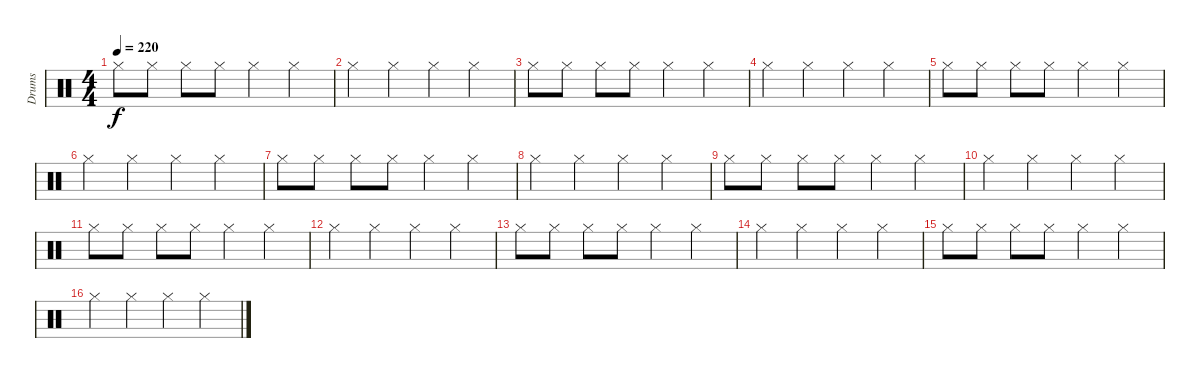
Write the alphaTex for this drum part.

\track ("Drums" "Drums") {instrument percussion}
\staff {score}
\articulation defaults
\ts (4 4)
\tempo 220
\clef neutral
\ks c "Hi-Hat (closed)".8{dy f} "Hi-Hat (closed)".8 "Hi-Hat (closed)".8 "Hi-Hat (closed)".8 "Hi-Hat (closed)".4 "Hi-Hat (closed)".4
|
"Hi-Hat (closed)".4 "Hi-Hat (closed)".4 "Hi-Hat (closed)".4 "Hi-Hat (closed)".4 |
"Hi-Hat (closed)".8 "Hi-Hat (closed)".8 "Hi-Hat (closed)".8 "Hi-Hat (closed)".8 "Hi-Hat (closed)".4 "Hi-Hat (closed)".4 |
"Hi-Hat (closed)".4 "Hi-Hat (closed)".4 "Hi-Hat (closed)".4 "Hi-Hat (closed)".4 |
"Hi-Hat (closed)".8 "Hi-Hat (closed)".8 "Hi-Hat (closed)".8 "Hi-Hat (closed)".8 "Hi-Hat (closed)".4 "Hi-Hat (closed)".4 |
"Hi-Hat (closed)".4 "Hi-Hat (closed)".4 "Hi-Hat (closed)".4 "Hi-Hat (closed)".4 |
"Hi-Hat (closed)".8 "Hi-Hat (closed)".8 "Hi-Hat (closed)".8 "Hi-Hat (closed)".8 "Hi-Hat (closed)".4 "Hi-Hat (closed)".4 |
"Hi-Hat (closed)".4 "Hi-Hat (closed)".4 "Hi-Hat (closed)".4 "Hi-Hat (closed)".4 |
"Hi-Hat (closed)".8 "Hi-Hat (closed)".8 "Hi-Hat (closed)".8 "Hi-Hat (closed)".8 "Hi-Hat (closed)".4 "Hi-Hat (closed)".4 |
"Hi-Hat (closed)".4 "Hi-Hat (closed)".4 "Hi-Hat (closed)".4 "Hi-Hat (closed)".4 |
"Hi-Hat (closed)".8 "Hi-Hat (closed)".8 "Hi-Hat (closed)".8 "Hi-Hat (closed)".8 "Hi-Hat (closed)".4 "Hi-Hat (closed)".4 |
"Hi-Hat (closed)".4 "Hi-Hat (closed)".4 "Hi-Hat (closed)".4 "Hi-Hat (closed)".4 |
"Hi-Hat (closed)".8 "Hi-Hat (closed)".8 "Hi-Hat (closed)".8 "Hi-Hat (closed)".8 "Hi-Hat (closed)".4 "Hi-Hat (closed)".4 |
"Hi-Hat (closed)".4 "Hi-Hat (closed)".4 "Hi-Hat (closed)".4 "Hi-Hat (closed)".4 |
"Hi-Hat (closed)".8 "Hi-Hat (closed)".8 "Hi-Hat (closed)".8 "Hi-Hat (closed)".8 "Hi-Hat (closed)".4 "Hi-Hat (closed)".4 |
"Hi-Hat (closed)".4 "Hi-Hat (closed)".4 "Hi-Hat (closed)".4 "Hi-Hat (closed)".4
